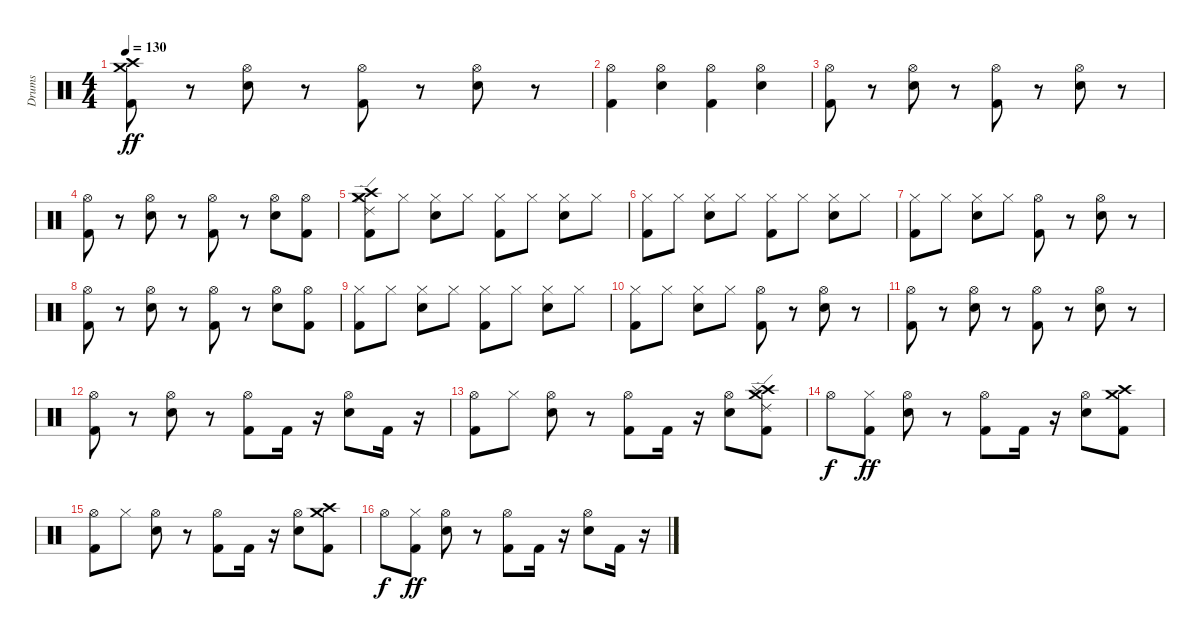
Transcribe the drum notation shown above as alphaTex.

\track ("Drums" "Drums") {instrument percussion}
\staff {score}
\articulation defaults
\ts (4 4)
\tempo 130
\clef neutral
\ks c
("Kick (hit) 2" "Crash high (hit)" "Crash medium (hit)").8{dy ff} r.8 ("Snare (hit) 2" "Hi-Hat (open)").8 r.8 ("Kick (hit) 2" "Hi-Hat (open)").8 r.8 ("Snare (hit) 2" "Hi-Hat (open)").8 r.8 |
("Kick (hit) 2" "Hi-Hat (open)").4 ("Snare (hit) 2" "Hi-Hat (open)").4 ("Kick (hit) 2" "Hi-Hat (open)").4 ("Snare (hit) 2" "Hi-Hat (open)").4 |
("Kick (hit) 2" "Hi-Hat (open)").8 r.8 ("Snare (hit) 2" "Hi-Hat (open)").8 r.8 ("Kick (hit) 2" "Hi-Hat (open)").8 r.8 ("Snare (hit) 2" "Hi-Hat (open)").8 r.8 |
("Kick (hit) 2" "Hi-Hat (open)").8 r.8 ("Snare (hit) 2" "Hi-Hat (open)").8 r.8 ("Kick (hit) 2" "Hi-Hat (open)").8 r.8 ("Snare (hit) 2" "Hi-Hat (open)").8 ("Kick (hit) 2" "Hi-Hat (open)").8 |
("Kick (hit) 2" "Hi-Hat (closed)" "Crash high (hit)" "Crash medium (hit)" "Ride (edge) 2").8 "Hi-Hat (closed)".8 ("Snare (hit) 2" "Hi-Hat (closed)").8 "Hi-Hat (closed)".8 ("Kick (hit) 2" "Hi-Hat (closed)").8 "Hi-Hat (closed)".8 ("Snare (hit) 2" "Hi-Hat (closed)").8 "Hi-Hat (closed)".8 |
("Kick (hit) 2" "Hi-Hat (closed)").8 "Hi-Hat (closed)".8 ("Snare (hit) 2" "Hi-Hat (closed)").8 "Hi-Hat (closed)".8 ("Kick (hit) 2" "Hi-Hat (closed)").8 "Hi-Hat (closed)".8 ("Snare (hit) 2" "Hi-Hat (closed)").8 "Hi-Hat (closed)".8 |
("Kick (hit) 2" "Hi-Hat (closed)").8 "Hi-Hat (closed)".8 ("Snare (hit) 2" "Hi-Hat (closed)").8 "Hi-Hat (closed)".8 ("Kick (hit) 2" "Hi-Hat (open)").8 r.8 ("Snare (hit) 2" "Hi-Hat (open)").8 r.8 |
("Kick (hit) 2" "Hi-Hat (open)").8 r.8 ("Snare (hit) 2" "Hi-Hat (open)").8 r.8 ("Kick (hit) 2" "Hi-Hat (open)").8 r.8 ("Snare (hit) 2" "Hi-Hat (open)").8 ("Kick (hit) 2" "Hi-Hat (open)").8 |
("Kick (hit) 2" "Hi-Hat (closed)").8 "Hi-Hat (closed)".8 ("Snare (hit) 2" "Hi-Hat (closed)").8 "Hi-Hat (closed)".8 ("Kick (hit) 2" "Hi-Hat (closed)").8 "Hi-Hat (closed)".8 ("Snare (hit) 2" "Hi-Hat (closed)").8 "Hi-Hat (closed)".8 |
("Kick (hit) 2" "Hi-Hat (closed)").8 "Hi-Hat (closed)".8 ("Snare (hit) 2" "Hi-Hat (closed)").8 "Hi-Hat (closed)".8 ("Kick (hit) 2" "Hi-Hat (open)").8 r.8 ("Snare (hit) 2" "Hi-Hat (open)").8 r.8 |
("Kick (hit) 2" "Hi-Hat (open)").8 r.8 ("Snare (hit) 2" "Hi-Hat (open)").8 r.8 ("Kick (hit) 2" "Hi-Hat (open)").8 r.8 ("Snare (hit) 2" "Hi-Hat (open)").8 r.8 |
("Kick (hit) 2" "Hi-Hat (open)").8 r.8 ("Snare (hit) 2" "Hi-Hat (open)").8 r.8 ("Kick (hit) 2" "Hi-Hat (open)").8 "Kick (hit) 2".16 r.16 ("Snare (hit) 2" "Hi-Hat (open)").8 "Kick (hit) 2".16 r.16 |
("Kick (hit) 2" "Hi-Hat (open)").8 "Hi-Hat (closed)".8 ("Snare (hit) 2" "Hi-Hat (open)").8 r.8 ("Kick (hit) 2" "Hi-Hat (open)").8 "Kick (hit) 2".16 r.16 ("Snare (hit) 2" "Hi-Hat (open)").8 ("Kick (hit) 2" "Crash high (hit)" "Splash (hit)" "Crash medium (hit)" "Ride (edge) 2").8 |
"Hi-Hat (open)".8{dy f} ("Kick (hit) 2" "Hi-Hat (closed)").8{dy ff} ("Snare (hit) 2" "Hi-Hat (open)").8 r.8 ("Kick (hit) 2" "Hi-Hat (open)").8 "Kick (hit) 2".16 r.16 ("Snare (hit) 2" "Hi-Hat (open)").8 ("Kick (hit) 2" "Crash high (hit)" "Crash medium (hit)").8 |
("Kick (hit) 2" "Hi-Hat (open)").8 "Hi-Hat (closed)".8 ("Snare (hit) 2" "Hi-Hat (open)").8 r.8 ("Kick (hit) 2" "Hi-Hat (open)").8 "Kick (hit) 2".16 r.16 ("Snare (hit) 2" "Hi-Hat (open)").8 ("Kick (hit) 2" "Crash high (hit)" "Crash medium (hit)").8 |
"Hi-Hat (open)".8{dy f} ("Kick (hit) 2" "Hi-Hat (closed)").8{dy ff} ("Snare (hit) 2" "Hi-Hat (open)").8 r.8 ("Kick (hit) 2" "Hi-Hat (open)").8 "Kick (hit) 2".16 r.16 ("Snare (hit) 2" "Hi-Hat (open)").8 "Kick (hit) 2".16 r.16
